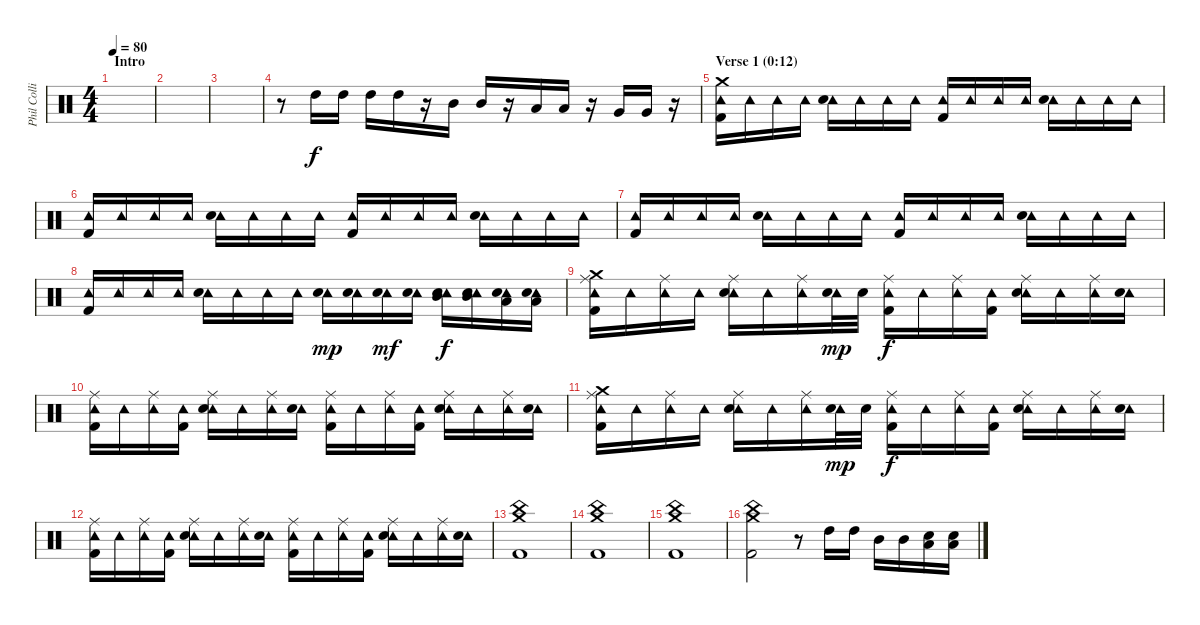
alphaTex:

\track ("Phil Collins (drums)" "Phil Colli") {instrument percussion}
\staff {score}
\articulation defaults
\ts (4 4)
\section ("" "Intro")
\tempo 80
\clef neutral
\ks c
|
|
|
r.8 "High Tom (hit)".16 "High Tom (hit)".16 "High Tom (hit)".16 "High Tom (hit)".16 r.16 "Mid Tom (hit)".16 "Mid Tom (hit)".16 r.16 "Low Tom (hit)".16 "Low Tom (hit)".16 r.16 "Very Low Tom (hit)".16 "Very Low Tom (hit)".16 r.16 |
\section ("" "Verse 1 (0:12)")
("Crash medium (hit)" "Tambourine (hit)" "Kick (hit) 2").16 "Tambourine (hit)".16 "Tambourine (hit)".16 "Tambourine (hit)".16 ("Tambourine (hit)" "Electric Snare (hit)").16 "Tambourine (hit)".16 "Tambourine (hit)".16 "Tambourine (hit)".16 ("Tambourine (hit)" "Kick (hit) 2").16 "Tambourine (hit)".16 "Tambourine (hit)".16 "Tambourine (hit)".16 ("Tambourine (hit)" "Electric Snare (hit)").16 "Tambourine (hit)".16 "Tambourine (hit)".16 "Tambourine (hit)".16 |
("Tambourine (hit)" "Kick (hit) 2").16 "Tambourine (hit)".16 "Tambourine (hit)".16 "Tambourine (hit)".16 ("Tambourine (hit)" "Electric Snare (hit)").16 "Tambourine (hit)".16 "Tambourine (hit)".16 "Tambourine (hit)".16 ("Tambourine (hit)" "Kick (hit) 2").16 "Tambourine (hit)".16 "Tambourine (hit)".16 "Tambourine (hit)".16 ("Tambourine (hit)" "Electric Snare (hit)").16 "Tambourine (hit)".16 "Tambourine (hit)".16 "Tambourine (hit)".16 |
("Tambourine (hit)" "Kick (hit) 2").16 "Tambourine (hit)".16 "Tambourine (hit)".16 "Tambourine (hit)".16 ("Tambourine (hit)" "Electric Snare (hit)").16 "Tambourine (hit)".16 "Tambourine (hit)".16 "Tambourine (hit)".16 ("Tambourine (hit)" "Kick (hit) 2").16 "Tambourine (hit)".16 "Tambourine (hit)".16 "Tambourine (hit)".16 ("Tambourine (hit)" "Electric Snare (hit)").16 "Tambourine (hit)".16 "Tambourine (hit)".16 "Tambourine (hit)".16 |
("Tambourine (hit)" "Kick (hit) 2").16 "Tambourine (hit)".16 "Tambourine (hit)".16 "Tambourine (hit)".16 ("Tambourine (hit)" "Electric Snare (hit)").16 "Tambourine (hit)".16 "Tambourine (hit)".16 "Tambourine (hit)".16 ("Tambourine (hit)" "Electric Snare (hit)").16{dy mp} ("Tambourine (hit)" "Electric Snare (hit)").16 ("Tambourine (hit)" "Electric Snare (hit)").16{dy mf} ("Tambourine (hit)" "Electric Snare (hit)").16 ("Mid Tom (hit)" "Tambourine (hit)" "Electric Snare (hit)").16{dy f} ("Mid Tom (hit)" "Tambourine (hit)" "Electric Snare (hit)").16 ("Low Tom (hit)" "Tambourine (hit)" "Electric Snare (hit)").16 ("Low Tom (hit)" "Tambourine (hit)" "Electric Snare (hit)").16 |
("Crash medium (hit)" "Ride (middle)" "Tambourine (hit)" "Kick (hit) 2").16 "Tambourine (hit)".16 ("Ride (middle)" "Tambourine (hit)").16 "Tambourine (hit)".16 ("Ride (middle)" "Tambourine (hit)" "Electric Snare (hit)").16 "Tambourine (hit)".16 ("Ride (middle)" "Tambourine (hit)").16 ("Tambourine (hit)" "Electric Snare (hit)").32{dy mp} "Electric Snare (hit)".32 ("Ride (middle)" "Tambourine (hit)" "Kick (hit) 2").16{dy f} "Tambourine (hit)".16 ("Ride (middle)" "Tambourine (hit)").16 ("Tambourine (hit)" "Kick (hit) 2").16 ("Ride (middle)" "Tambourine (hit)" "Electric Snare (hit)").16 "Tambourine (hit)".16 ("Ride (middle)" "Tambourine (hit)").16 ("Tambourine (hit)" "Electric Snare (hit)").16 |
("Ride (middle)" "Tambourine (hit)" "Kick (hit) 2").16 "Tambourine (hit)".16 ("Ride (middle)" "Tambourine (hit)").16 ("Tambourine (hit)" "Kick (hit) 2").16 ("Ride (middle)" "Tambourine (hit)" "Electric Snare (hit)").16 "Tambourine (hit)".16 ("Ride (middle)" "Tambourine (hit)").16 ("Tambourine (hit)" "Electric Snare (hit)").16 ("Ride (middle)" "Tambourine (hit)" "Kick (hit) 2").16 "Tambourine (hit)".16 ("Ride (middle)" "Tambourine (hit)").16 ("Tambourine (hit)" "Kick (hit) 2").16 ("Ride (middle)" "Tambourine (hit)" "Electric Snare (hit)").16 "Tambourine (hit)".16 ("Ride (middle)" "Tambourine (hit)").16 ("Tambourine (hit)" "Electric Snare (hit)").16 |
("Crash medium (hit)" "Ride (middle)" "Tambourine (hit)" "Kick (hit) 2").16 "Tambourine (hit)".16 ("Ride (middle)" "Tambourine (hit)").16 "Tambourine (hit)".16 ("Ride (middle)" "Tambourine (hit)" "Electric Snare (hit)").16 "Tambourine (hit)".16 ("Ride (middle)" "Tambourine (hit)").16 ("Tambourine (hit)" "Electric Snare (hit)").32{dy mp} "Electric Snare (hit)".32 ("Ride (middle)" "Tambourine (hit)" "Kick (hit) 2").16{dy f} "Tambourine (hit)".16 ("Ride (middle)" "Tambourine (hit)").16 ("Tambourine (hit)" "Kick (hit) 2").16 ("Ride (middle)" "Tambourine (hit)" "Electric Snare (hit)").16 "Tambourine (hit)".16 ("Ride (middle)" "Tambourine (hit)").16 ("Tambourine (hit)" "Electric Snare (hit)").16 |
("Ride (middle)" "Tambourine (hit)" "Kick (hit) 2").16 "Tambourine (hit)".16 ("Ride (middle)" "Tambourine (hit)").16 ("Tambourine (hit)" "Kick (hit) 2").16 ("Ride (middle)" "Tambourine (hit)" "Electric Snare (hit)").16 "Tambourine (hit)".16 ("Ride (middle)" "Tambourine (hit)").16 ("Tambourine (hit)" "Electric Snare (hit)").16 ("Ride (middle)" "Tambourine (hit)" "Kick (hit) 2").16 "Tambourine (hit)".16 ("Ride (middle)" "Tambourine (hit)").16 ("Tambourine (hit)" "Kick (hit) 2").16 ("Ride (middle)" "Tambourine (hit)" "Electric Snare (hit)").16 "Tambourine (hit)".16 ("Ride (middle)" "Tambourine (hit)").16 ("Tambourine (hit)" "Electric Snare (hit)").16 |
("China (hit)" "Crash medium (hit)" "Kick (hit) 2").1 |
("China (hit)" "Crash medium (hit)" "Kick (hit) 2").1 |
("China (hit)" "Crash medium (hit)" "Kick (hit) 2").1 |
("China (hit)" "Crash medium (hit)" "Kick (hit) 2").2 r.8 "High Tom (hit)".16 "High Tom (hit)".16 "Mid Tom (hit)".16 "Mid Tom (hit)".16 ("Low Tom (hit)" "Electric Snare (hit)").16 ("Low Tom (hit)" "Electric Snare (hit)").16
